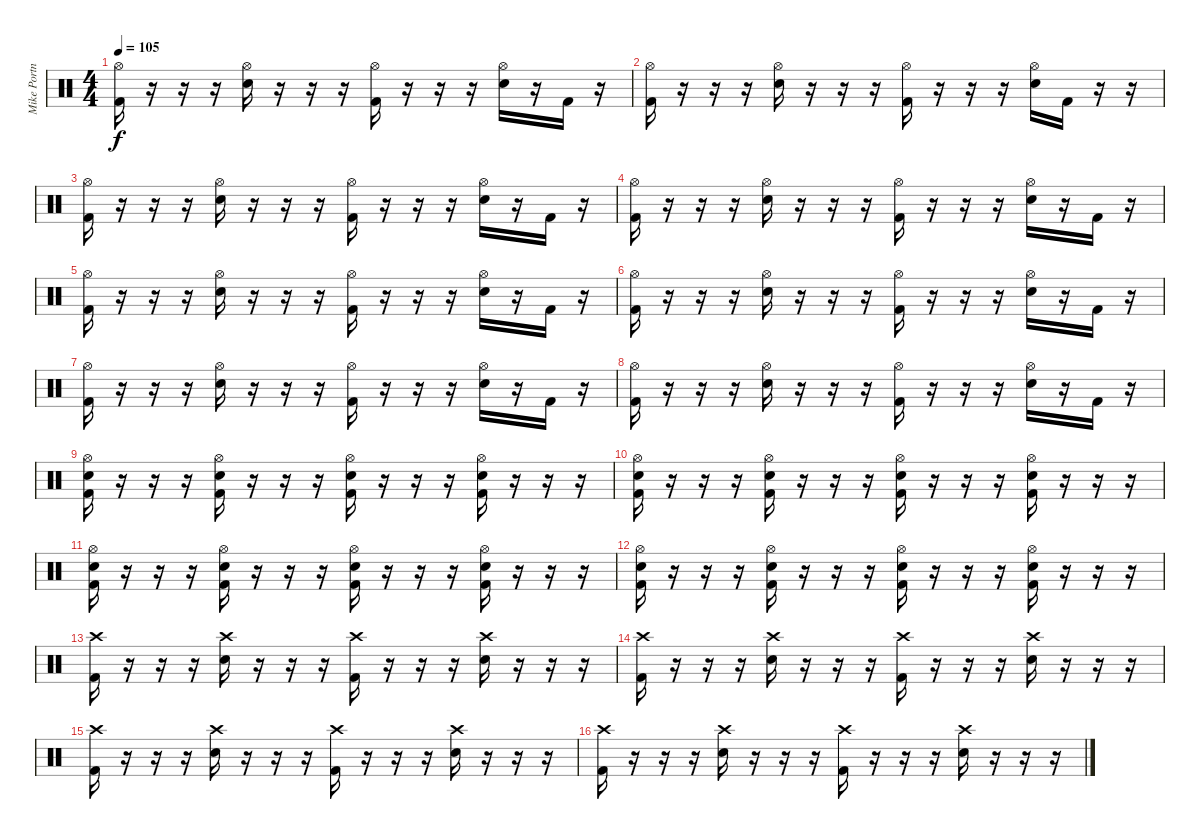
\track ("Mike Portnoy" "Mike Portn") {instrument percussion}
\staff {score}
\articulation defaults
\ts (4 4)
\tempo 105
\clef neutral
\ks c
("Hi-Hat (open)" "Kick (hit) 2").16{dy f} r.16 r.16 r.16 ("Hi-Hat (open)" "Electric Snare (hit)").16 r.16 r.16 r.16 ("Hi-Hat (open)" "Kick (hit) 2").16 r.16 r.16 r.16 ("Hi-Hat (open)" "Electric Snare (hit)").16 r.16 "Kick (hit) 2".16 r.16 |
("Hi-Hat (open)" "Kick (hit) 2").16 r.16 r.16 r.16 ("Hi-Hat (open)" "Electric Snare (hit)").16 r.16 r.16 r.16 ("Hi-Hat (open)" "Kick (hit) 2").16 r.16 r.16 r.16 ("Hi-Hat (open)" "Electric Snare (hit)").16 "Kick (hit) 2".16 r.16 r.16 |
("Hi-Hat (open)" "Kick (hit) 2").16 r.16 r.16 r.16 ("Hi-Hat (open)" "Electric Snare (hit)").16 r.16 r.16 r.16 ("Hi-Hat (open)" "Kick (hit) 2").16 r.16 r.16 r.16 ("Hi-Hat (open)" "Electric Snare (hit)").16 r.16 "Kick (hit) 2".16 r.16 |
("Hi-Hat (open)" "Kick (hit) 2").16 r.16 r.16 r.16 ("Hi-Hat (open)" "Electric Snare (hit)").16 r.16 r.16 r.16 ("Hi-Hat (open)" "Kick (hit) 2").16 r.16 r.16 r.16 ("Hi-Hat (open)" "Electric Snare (hit)").16 r.16 "Kick (hit) 2".16 r.16 |
("Hi-Hat (open)" "Kick (hit) 2").16 r.16 r.16 r.16 ("Hi-Hat (open)" "Electric Snare (hit)").16 r.16 r.16 r.16 ("Hi-Hat (open)" "Kick (hit) 2").16 r.16 r.16 r.16 ("Hi-Hat (open)" "Electric Snare (hit)").16 r.16 "Kick (hit) 2".16 r.16 |
("Hi-Hat (open)" "Kick (hit) 2").16 r.16 r.16 r.16 ("Hi-Hat (open)" "Electric Snare (hit)").16 r.16 r.16 r.16 ("Hi-Hat (open)" "Kick (hit) 2").16 r.16 r.16 r.16 ("Hi-Hat (open)" "Electric Snare (hit)").16 r.16 "Kick (hit) 2".16 r.16 |
("Hi-Hat (open)" "Kick (hit) 2").16 r.16 r.16 r.16 ("Hi-Hat (open)" "Electric Snare (hit)").16 r.16 r.16 r.16 ("Hi-Hat (open)" "Kick (hit) 2").16 r.16 r.16 r.16 ("Hi-Hat (open)" "Electric Snare (hit)").16 r.16 "Kick (hit) 2".16 r.16 |
("Hi-Hat (open)" "Kick (hit) 2").16 r.16 r.16 r.16 ("Hi-Hat (open)" "Electric Snare (hit)").16 r.16 r.16 r.16 ("Hi-Hat (open)" "Kick (hit) 2").16 r.16 r.16 r.16 ("Hi-Hat (open)" "Electric Snare (hit)").16 r.16 "Kick (hit) 2".16 r.16 |
("Hi-Hat (open)" "Electric Snare (hit)" "Kick (hit) 2").16 r.16 r.16 r.16 ("Hi-Hat (open)" "Electric Snare (hit)" "Kick (hit) 2").16 r.16 r.16 r.16 ("Hi-Hat (open)" "Electric Snare (hit)" "Kick (hit) 2").16 r.16 r.16 r.16 ("Hi-Hat (open)" "Electric Snare (hit)" "Kick (hit) 2").16 r.16 r.16 r.16 |
("Hi-Hat (open)" "Electric Snare (hit)" "Kick (hit) 2").16 r.16 r.16 r.16 ("Hi-Hat (open)" "Electric Snare (hit)" "Kick (hit) 2").16 r.16 r.16 r.16 ("Hi-Hat (open)" "Electric Snare (hit)" "Kick (hit) 2").16 r.16 r.16 r.16 ("Hi-Hat (open)" "Electric Snare (hit)" "Kick (hit) 2").16 r.16 r.16 r.16 |
("Hi-Hat (open)" "Electric Snare (hit)" "Kick (hit) 2").16 r.16 r.16 r.16 ("Hi-Hat (open)" "Electric Snare (hit)" "Kick (hit) 2").16 r.16 r.16 r.16 ("Hi-Hat (open)" "Electric Snare (hit)" "Kick (hit) 2").16 r.16 r.16 r.16 ("Hi-Hat (open)" "Electric Snare (hit)" "Kick (hit) 2").16 r.16 r.16 r.16 |
("Hi-Hat (open)" "Electric Snare (hit)" "Kick (hit) 2").16 r.16 r.16 r.16 ("Hi-Hat (open)" "Electric Snare (hit)" "Kick (hit) 2").16 r.16 r.16 r.16 ("Hi-Hat (open)" "Electric Snare (hit)" "Kick (hit) 2").16 r.16 r.16 r.16 ("Hi-Hat (open)" "Electric Snare (hit)" "Kick (hit) 2").16 r.16 r.16 r.16 |
("Crash high (hit)" "Kick (hit) 2").16 r.16 r.16 r.16 ("Crash high (hit)" "Electric Snare (hit)").16 r.16 r.16 r.16 ("Crash high (hit)" "Kick (hit) 2").16 r.16 r.16 r.16 ("Crash high (hit)" "Electric Snare (hit)").16 r.16 r.16 r.16 |
("Crash high (hit)" "Kick (hit) 2").16 r.16 r.16 r.16 ("Crash high (hit)" "Electric Snare (hit)").16 r.16 r.16 r.16 ("Crash high (hit)" "Kick (hit) 2").16 r.16 r.16 r.16 ("Crash high (hit)" "Electric Snare (hit)").16 r.16 r.16 r.16 |
("Crash high (hit)" "Kick (hit) 2").16 r.16 r.16 r.16 ("Crash high (hit)" "Electric Snare (hit)").16 r.16 r.16 r.16 ("Crash high (hit)" "Kick (hit) 2").16 r.16 r.16 r.16 ("Crash high (hit)" "Electric Snare (hit)").16 r.16 r.16 r.16 |
("Crash high (hit)" "Kick (hit) 2").16 r.16 r.16 r.16 ("Crash high (hit)" "Electric Snare (hit)").16 r.16 r.16 r.16 ("Crash high (hit)" "Kick (hit) 2").16 r.16 r.16 r.16 ("Crash high (hit)" "Electric Snare (hit)").16 r.16 r.16 r.16
